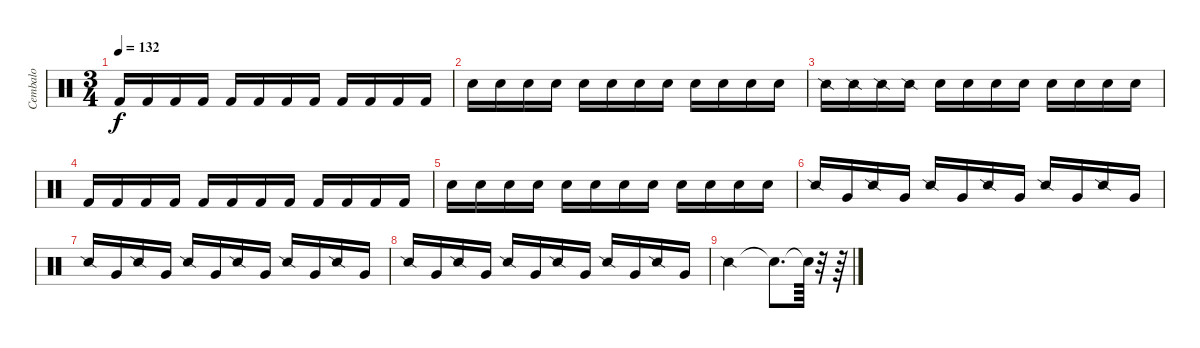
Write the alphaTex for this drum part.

\track ("Cembalo" "Cembalo") {instrument percussion}
\staff {score}
\articulation defaults
\ts (3 4)
\tempo 132
\clef neutral
\ks c "Kick (hit) 2".16{dy f} "Kick (hit) 2".16 "Kick (hit) 2".16 "Kick (hit) 2".16 "Kick (hit) 2".16 "Kick (hit) 2".16 "Kick (hit) 2".16 "Kick (hit) 2".16 "Kick (hit) 2".16 "Kick (hit) 2".16 "Kick (hit) 2".16 "Kick (hit) 2".16
|
"Snare (hit) 2".16 "Snare (hit) 2".16 "Snare (hit) 2".16 "Snare (hit) 2".16 "Snare (hit) 2".16 "Snare (hit) 2".16 "Snare (hit) 2".16 "Snare (hit) 2".16 "Snare (hit) 2".16 "Snare (hit) 2".16 "Snare (hit) 2".16 "Snare (hit) 2".16 |
"Snare (side stick) 2".16 "Snare (side stick) 2".16 "Snare (side stick) 2".16 "Snare (side stick) 2".16 "Metronome (bell)".16 "Metronome (bell)".16 "Metronome (bell)".16 "Metronome (bell)".16 "Metronome (bell)".16 "Metronome (bell)".16 "Metronome (bell)".16 "Metronome (bell)".16 |
"Kick (hit) 2".16 "Kick (hit) 2".16 "Kick (hit) 2".16 "Kick (hit) 2".16 "Kick (hit) 2".16 "Kick (hit) 2".16 "Kick (hit) 2".16 "Kick (hit) 2".16 "Kick (hit) 2".16 "Kick (hit) 2".16 "Kick (hit) 2".16 "Kick (hit) 2".16 |
"Snare (hit) 2".16 "Snare (hit) 2".16 "Snare (hit) 2".16 "Snare (hit) 2".16 "Snare (hit) 2".16 "Snare (hit) 2".16 "Snare (hit) 2".16 "Snare (hit) 2".16 "Snare (hit) 2".16 "Snare (hit) 2".16 "Snare (hit) 2".16 "Snare (hit) 2".16 |
"Snare (side stick) 2".16 "Very Low Tom (hit)".16 "Snare (side stick) 2".16 "Very Low Tom (hit)".16 "Snare (side stick) 2".16 "Very Low Tom (hit)".16 "Snare (side stick) 2".16 "Very Low Tom (hit)".16 "Snare (side stick) 2".16 "Very Low Tom (hit)".16 "Snare (side stick) 2".16 "Very Low Tom (hit)".16 |
"Snare (side stick) 2".16 "Very Low Tom (hit)".16 "Snare (side stick) 2".16 "Very Low Tom (hit)".16 "Snare (side stick) 2".16 "Very Low Tom (hit)".16 "Snare (side stick) 2".16 "Very Low Tom (hit)".16 "Snare (side stick) 2".16 "Very Low Tom (hit)".16 "Snare (side stick) 2".16 "Very Low Tom (hit)".16 |
"Snare (side stick) 2".16 "Very Low Tom (hit)".16 "Snare (side stick) 2".16 "Very Low Tom (hit)".16 "Snare (side stick) 2".16 "Very Low Tom (hit)".16 "Snare (side stick) 2".16 "Very Low Tom (hit)".16 "Snare (side stick) 2".16 "Very Low Tom (hit)".16 "Snare (side stick) 2".16 "Very Low Tom (hit)".16 |
"Snare (side stick) 2".2 "Snare (hit)"{t}.8{d} "Snare (hit)"{t}.64 r.32 r.64
